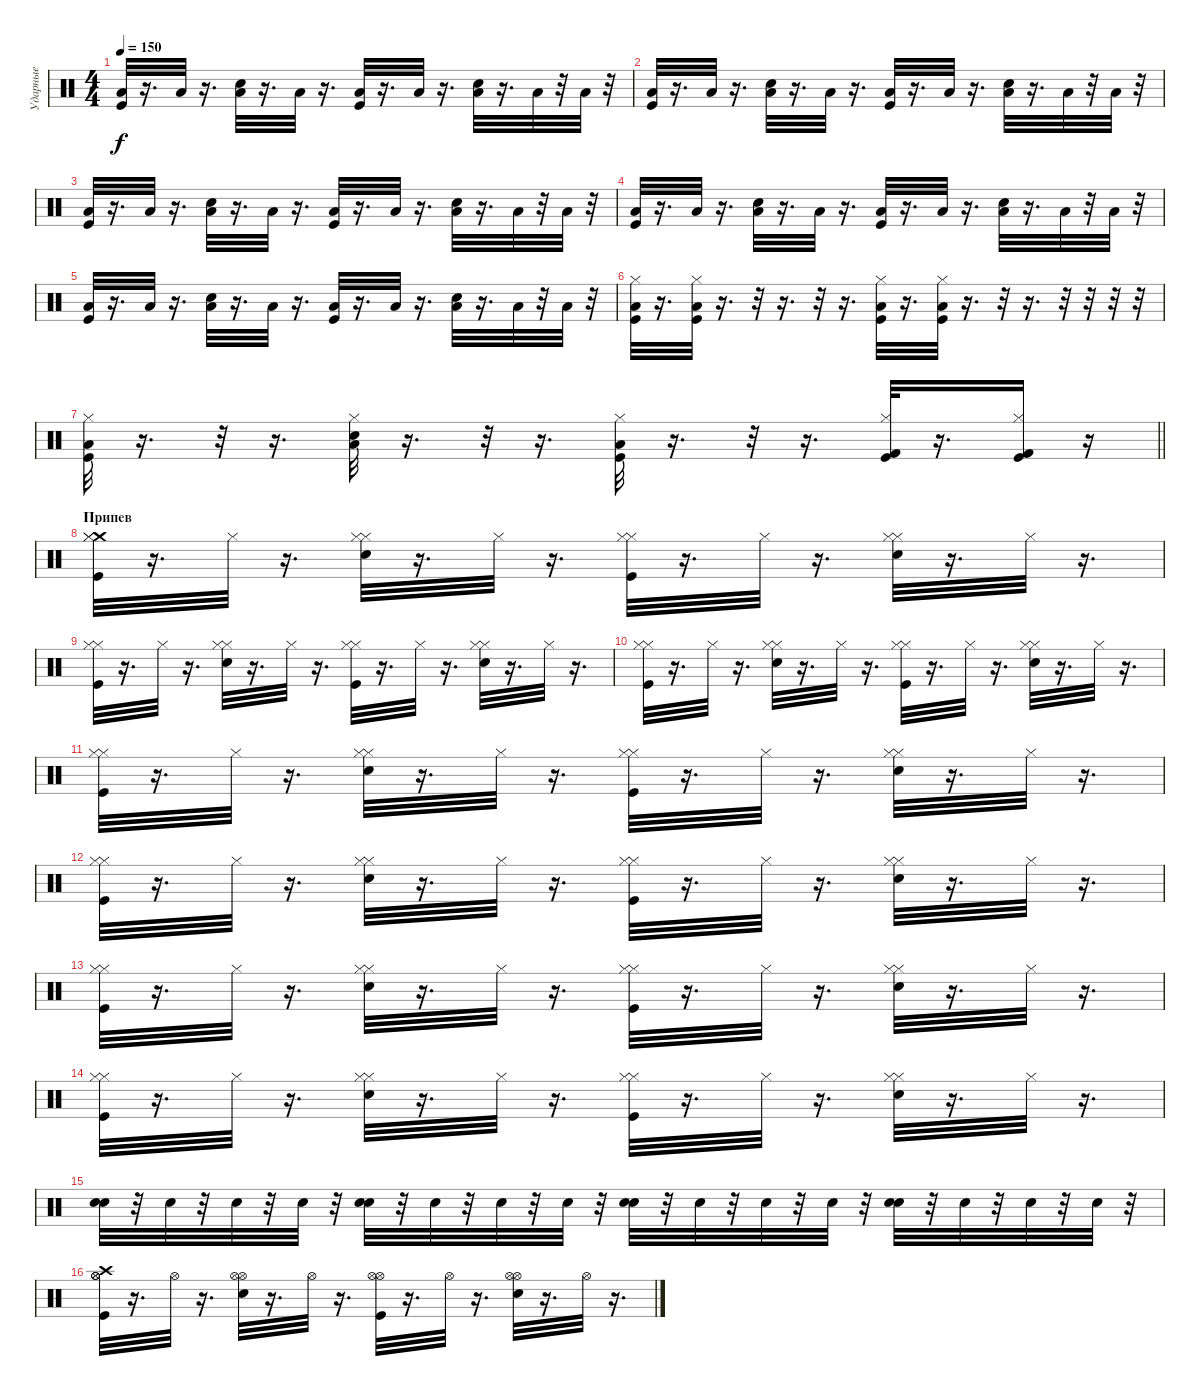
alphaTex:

\track ("Ударные" "Ударные") {instrument percussion}
\staff {score}
\articulation defaults
\ts (4 4)
\tempo 150
\clef neutral
\ks c
("Kick (hit)" "Low Floor Tom (hit)").32{dy f} r.16{d} "Low Floor Tom (hit)".32 r.16{d} ("Low Floor Tom (hit)" "Snare (hit) 2").32 r.16{d} "Low Floor Tom (hit)".32 r.16{d} ("Low Floor Tom (hit)" "Kick (hit)").32 r.16{d} "Low Floor Tom (hit)".32 r.16{d} ("Snare (hit) 2" "Low Floor Tom (hit)").32 r.16{d} "Low Floor Tom (hit)".32 r.32 "Low Floor Tom (hit)".32 r.32 |
("Kick (hit)" "Low Floor Tom (hit)").32 r.16{d} "Low Floor Tom (hit)".32 r.16{d} ("Low Floor Tom (hit)" "Snare (hit) 2").32 r.16{d} "Low Floor Tom (hit)".32 r.16{d} ("Kick (hit)" "Low Floor Tom (hit)").32 r.16{d} "Low Floor Tom (hit)".32 r.16{d} ("Low Floor Tom (hit)" "Snare (hit) 2").32 r.16{d} "Low Floor Tom (hit)".32 r.32 "Low Floor Tom (hit)".32 r.32 |
("Kick (hit)" "Low Floor Tom (hit)").32 r.16{d} "Low Floor Tom (hit)".32 r.16{d} ("Low Floor Tom (hit)" "Snare (hit) 2").32 r.16{d} "Low Floor Tom (hit)".32 r.16{d} ("Low Floor Tom (hit)" "Kick (hit)").32 r.16{d} "Low Floor Tom (hit)".32 r.16{d} ("Snare (hit) 2" "Low Floor Tom (hit)").32 r.16{d} "Low Floor Tom (hit)".32 r.32 "Low Floor Tom (hit)".32 r.32 |
("Kick (hit)" "Low Floor Tom (hit)").32 r.16{d} "Low Floor Tom (hit)".32 r.16{d} ("Low Floor Tom (hit)" "Snare (hit) 2").32 r.16{d} "Low Floor Tom (hit)".32 r.16{d} ("Kick (hit)" "Low Floor Tom (hit)").32 r.16{d} "Low Floor Tom (hit)".32 r.16{d} ("Low Floor Tom (hit)" "Snare (hit) 2").32 r.16{d} "Low Floor Tom (hit)".32 r.32 "Low Floor Tom (hit)".32 r.32 |
("Kick (hit)" "Low Floor Tom (hit)").32 r.16{d} "Low Floor Tom (hit)".32 r.16{d} ("Low Floor Tom (hit)" "Snare (hit) 2").32 r.16{d} "Low Floor Tom (hit)".32 r.16{d} ("Low Floor Tom (hit)" "Kick (hit)").32 r.16{d} "Low Floor Tom (hit)".32 r.16{d} ("Snare (hit) 2" "Low Floor Tom (hit)").32 r.16{d} "Low Floor Tom (hit)".32 r.32 "Low Floor Tom (hit)".32 r.32 |
("Kick (hit)" "Low Floor Tom (hit)" "Hi-Hat (closed)").32 r.16{d} ("Kick (hit)" "Low Floor Tom (hit)" "Hi-Hat (closed)").32 r.16{d} r.32 r.16{d} r.32 r.16{d} ("Kick (hit)" "Low Floor Tom (hit)" "Hi-Hat (closed)").32 r.16{d} ("Kick (hit)" "Low Floor Tom (hit)" "Hi-Hat (closed)").32 r.16{d} r.32 r.16{d} r.32 r.32 r.32 r.32 |
\barLineRight lightlight
("Kick (hit)" "Low Floor Tom (hit)" "Hi-Hat (closed)").32 r.16{d} r.32 r.16{d} ("Low Floor Tom (hit)" "Snare (hit) 2" "Hi-Hat (closed)").32 r.16{d} r.32 r.16{d} ("Low Floor Tom (hit)" "Kick (hit)" "Hi-Hat (closed)").32 r.16{d} r.32 r.16{d} ("Hi-Hat (closed)" "Kick (hit) 2" "Kick (hit)").32 r.16{d} ("Hi-Hat (closed)" "Kick (hit) 2" "Kick (hit)").16 r.16 |
\section ("" "Припев")
("Crash medium (hit)" "Hi-Hat (closed)" "Hi-Hat (closed)" "Kick (hit)").32 r.16{d} "Hi-Hat (closed)".32 r.16{d} ("Hi-Hat (closed)" "Hi-Hat (closed)" "Snare (hit) 2").32 r.16{d} "Hi-Hat (closed)".32 r.16{d} ("Hi-Hat (closed)" "Hi-Hat (closed)" "Kick (hit)").32 r.16{d} "Hi-Hat (closed)".32 r.16{d} ("Hi-Hat (closed)" "Hi-Hat (closed)" "Snare (hit) 2").32 r.16{d} "Hi-Hat (closed)".32 r.16{d} |
("Hi-Hat (closed)" "Hi-Hat (closed)" "Kick (hit)").32 r.16{d} "Hi-Hat (closed)".32 r.16{d} ("Hi-Hat (closed)" "Hi-Hat (closed)" "Snare (hit) 2").32 r.16{d} "Hi-Hat (closed)".32 r.16{d} ("Hi-Hat (closed)" "Hi-Hat (closed)" "Kick (hit)").32 r.16{d} "Hi-Hat (closed)".32 r.16{d} ("Hi-Hat (closed)" "Hi-Hat (closed)" "Snare (hit) 2").32 r.16{d} "Hi-Hat (closed)".32 r.16{d} |
("Hi-Hat (closed)" "Hi-Hat (closed)" "Kick (hit)").32 r.16{d} "Hi-Hat (closed)".32 r.16{d} ("Hi-Hat (closed)" "Hi-Hat (closed)" "Snare (hit) 2").32 r.16{d} "Hi-Hat (closed)".32 r.16{d} ("Hi-Hat (closed)" "Hi-Hat (closed)" "Kick (hit)").32 r.16{d} "Hi-Hat (closed)".32 r.16{d} ("Hi-Hat (closed)" "Hi-Hat (closed)" "Snare (hit) 2").32 r.16{d} "Hi-Hat (closed)".32 r.16{d} |
("Hi-Hat (closed)" "Hi-Hat (closed)" "Kick (hit)").32 r.16{d} "Hi-Hat (closed)".32 r.16{d} ("Hi-Hat (closed)" "Hi-Hat (closed)" "Snare (hit) 2").32 r.16{d} "Hi-Hat (closed)".32 r.16{d} ("Hi-Hat (closed)" "Hi-Hat (closed)" "Kick (hit)").32 r.16{d} "Hi-Hat (closed)".32 r.16{d} ("Hi-Hat (closed)" "Hi-Hat (closed)" "Snare (hit) 2").32 r.16{d} "Hi-Hat (closed)".32 r.16{d} |
("Hi-Hat (closed)" "Hi-Hat (closed)" "Kick (hit)").32 r.16{d} "Hi-Hat (closed)".32 r.16{d} ("Hi-Hat (closed)" "Hi-Hat (closed)" "Snare (hit) 2").32 r.16{d} "Hi-Hat (closed)".32 r.16{d} ("Hi-Hat (closed)" "Hi-Hat (closed)" "Kick (hit)").32 r.16{d} "Hi-Hat (closed)".32 r.16{d} ("Hi-Hat (closed)" "Hi-Hat (closed)" "Snare (hit) 2").32 r.16{d} "Hi-Hat (closed)".32 r.16{d} |
("Hi-Hat (closed)" "Hi-Hat (closed)" "Kick (hit)").32 r.16{d} "Hi-Hat (closed)".32 r.16{d} ("Hi-Hat (closed)" "Hi-Hat (closed)" "Snare (hit) 2").32 r.16{d} "Hi-Hat (closed)".32 r.16{d} ("Hi-Hat (closed)" "Hi-Hat (closed)" "Kick (hit)").32 r.16{d} "Hi-Hat (closed)".32 r.16{d} ("Hi-Hat (closed)" "Hi-Hat (closed)" "Snare (hit) 2").32 r.16{d} "Hi-Hat (closed)".32 r.16{d} |
("Hi-Hat (closed)" "Hi-Hat (closed)" "Kick (hit)").32 r.16{d} "Hi-Hat (closed)".32 r.16{d} ("Hi-Hat (closed)" "Hi-Hat (closed)" "Snare (hit) 2").32 r.16{d} "Hi-Hat (closed)".32 r.16{d} ("Hi-Hat (closed)" "Hi-Hat (closed)" "Kick (hit)").32 r.16{d} "Hi-Hat (closed)".32 r.16{d} ("Hi-Hat (closed)" "Hi-Hat (closed)" "Snare (hit) 2").32 r.16{d} "Hi-Hat (closed)".32 r.16{d} |
("Snare (hit) 2" "Snare (hit) 2").32 r.32 "Snare (hit) 2".32 r.32 "Snare (hit) 2".32 r.32 "Snare (hit) 2".32 r.32 ("Snare (hit) 2" "Snare (hit) 2").32 r.32 "Snare (hit) 2".32 r.32 "Snare (hit) 2".32 r.32 "Snare (hit) 2".32 r.32 ("Snare (hit) 2" "Snare (hit) 2").32 r.32 "Snare (hit) 2".32 r.32 "Snare (hit) 2".32 r.32 "Snare (hit) 2".32 r.32 ("Snare (hit) 2" "Snare (hit) 2").32 r.32 "Snare (hit) 2".32 r.32 "Snare (hit) 2".32 r.32 "Snare (hit) 2".32 r.32 |
("Crash high (hit)" "Kick (hit)" "Hi-Hat (open)" "Hi-Hat (open)").32 r.16{d} "Hi-Hat (open)".32 r.16{d} ("Hi-Hat (open)" "Snare (hit) 2" "Hi-Hat (open)").32 r.16{d} "Hi-Hat (open)".32 r.16{d} ("Hi-Hat (open)" "Kick (hit)" "Hi-Hat (open)").32 r.16{d} "Hi-Hat (open)".32 r.16{d} ("Hi-Hat (open)" "Hi-Hat (open)" "Snare (hit) 2").32 r.16{d} "Hi-Hat (open)".32 r.16{d}
